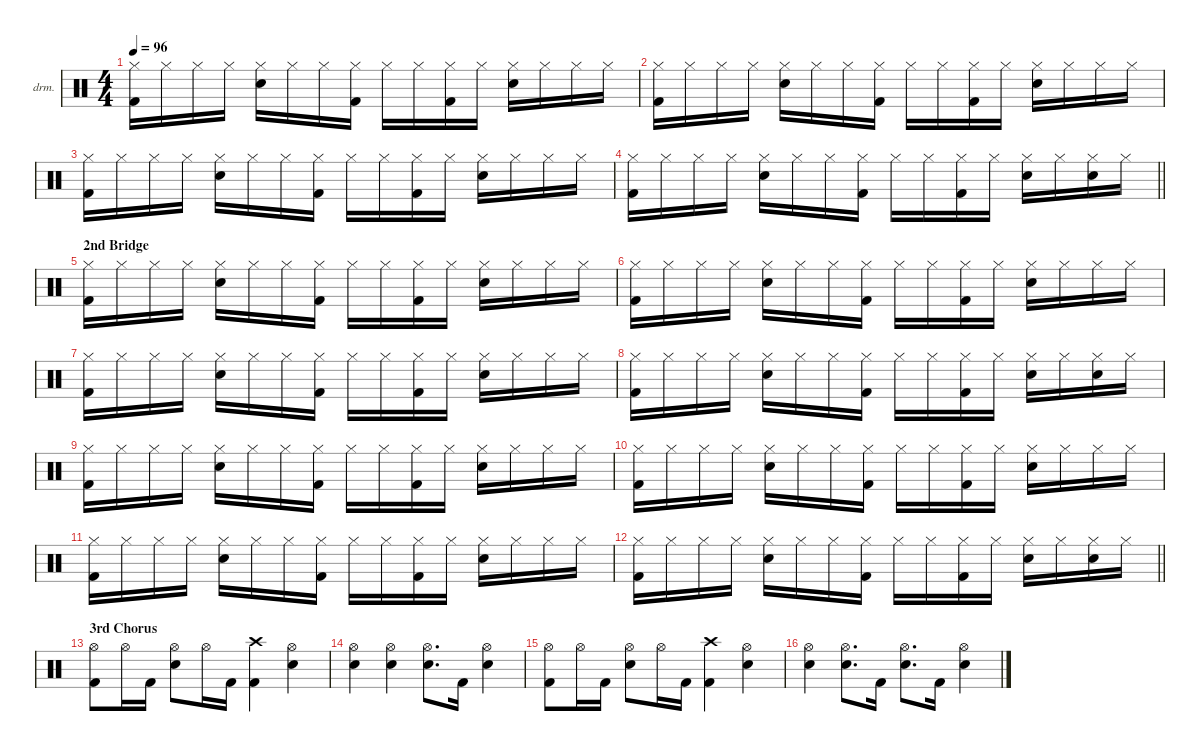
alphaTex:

\defaultSystemsLayout 4
\hideDynamics
\bracketExtendMode nobrackets
\firstSystemTrackNameOrientation horizontal
\otherSystemsTrackNameOrientation horizontal
\track ("Percussion" "drm.") {instrument percussion}
\staff {score}
\articulation defaults
\ts (4 4)
\tempo 96
\clef neutral
\ks c
("Hi-Hat (closed)" "Kick (hit) 2").16{dy pp} "Hi-Hat (closed)".16 "Hi-Hat (closed)".16 "Hi-Hat (closed)".16 ("Hi-Hat (closed)" "Snare (hit) 2").16 "Hi-Hat (closed)".16 "Hi-Hat (closed)".16 ("Hi-Hat (closed)" "Kick (hit) 2").16 "Hi-Hat (closed)".16 "Hi-Hat (closed)".16 ("Hi-Hat (closed)" "Kick (hit) 2").16 "Hi-Hat (closed)".16 ("Hi-Hat (closed)" "Snare (hit) 2").16 "Hi-Hat (closed)".16 "Hi-Hat (closed)".16 "Hi-Hat (closed)".16 |
("Hi-Hat (closed)" "Kick (hit) 2").16 "Hi-Hat (closed)".16 "Hi-Hat (closed)".16 "Hi-Hat (closed)".16 ("Hi-Hat (closed)" "Snare (hit) 2").16 "Hi-Hat (closed)".16 "Hi-Hat (closed)".16 ("Hi-Hat (closed)" "Kick (hit) 2").16 "Hi-Hat (closed)".16 "Hi-Hat (closed)".16 ("Hi-Hat (closed)" "Kick (hit) 2").16 "Hi-Hat (closed)".16 ("Hi-Hat (closed)" "Snare (hit) 2").16 "Hi-Hat (closed)".16 "Hi-Hat (closed)".16 "Hi-Hat (closed)".16 |
("Hi-Hat (closed)" "Kick (hit) 2").16 "Hi-Hat (closed)".16 "Hi-Hat (closed)".16 "Hi-Hat (closed)".16 ("Hi-Hat (closed)" "Snare (hit) 2").16 "Hi-Hat (closed)".16 "Hi-Hat (closed)".16 ("Hi-Hat (closed)" "Kick (hit) 2").16 "Hi-Hat (closed)".16 "Hi-Hat (closed)".16 ("Hi-Hat (closed)" "Kick (hit) 2").16 "Hi-Hat (closed)".16 ("Hi-Hat (closed)" "Snare (hit) 2").16 "Hi-Hat (closed)".16 "Hi-Hat (closed)".16 "Hi-Hat (closed)".16 |
\barLineRight lightlight
("Hi-Hat (closed)" "Kick (hit) 2").16 "Hi-Hat (closed)".16 "Hi-Hat (closed)".16 "Hi-Hat (closed)".16 ("Hi-Hat (closed)" "Snare (hit) 2").16 "Hi-Hat (closed)".16 "Hi-Hat (closed)".16 ("Hi-Hat (closed)" "Kick (hit) 2").16 "Hi-Hat (closed)".16 "Hi-Hat (closed)".16 ("Hi-Hat (closed)" "Kick (hit) 2").16 "Hi-Hat (closed)".16 ("Hi-Hat (closed)" "Snare (hit) 2").16 "Hi-Hat (closed)".16 ("Hi-Hat (closed)" "Snare (hit) 2").16 "Hi-Hat (closed)".16 |
\section ("" "2nd Bridge")
("Hi-Hat (closed)" "Kick (hit) 2").16 "Hi-Hat (closed)".16 "Hi-Hat (closed)".16 "Hi-Hat (closed)".16 ("Hi-Hat (closed)" "Snare (hit) 2").16 "Hi-Hat (closed)".16 "Hi-Hat (closed)".16 ("Hi-Hat (closed)" "Kick (hit) 2").16 "Hi-Hat (closed)".16 "Hi-Hat (closed)".16 ("Hi-Hat (closed)" "Kick (hit) 2").16 "Hi-Hat (closed)".16 ("Hi-Hat (closed)" "Snare (hit) 2").16 "Hi-Hat (closed)".16 "Hi-Hat (closed)".16 "Hi-Hat (closed)".16 |
("Hi-Hat (closed)" "Kick (hit) 2").16 "Hi-Hat (closed)".16 "Hi-Hat (closed)".16 "Hi-Hat (closed)".16 ("Hi-Hat (closed)" "Snare (hit) 2").16 "Hi-Hat (closed)".16 "Hi-Hat (closed)".16 ("Hi-Hat (closed)" "Kick (hit) 2").16 "Hi-Hat (closed)".16 "Hi-Hat (closed)".16 ("Hi-Hat (closed)" "Kick (hit) 2").16 "Hi-Hat (closed)".16 ("Hi-Hat (closed)" "Snare (hit) 2").16 "Hi-Hat (closed)".16 "Hi-Hat (closed)".16 "Hi-Hat (closed)".16 |
("Hi-Hat (closed)" "Kick (hit) 2").16 "Hi-Hat (closed)".16 "Hi-Hat (closed)".16 "Hi-Hat (closed)".16 ("Hi-Hat (closed)" "Snare (hit) 2").16 "Hi-Hat (closed)".16 "Hi-Hat (closed)".16 ("Hi-Hat (closed)" "Kick (hit) 2").16 "Hi-Hat (closed)".16 "Hi-Hat (closed)".16 ("Hi-Hat (closed)" "Kick (hit) 2").16 "Hi-Hat (closed)".16 ("Hi-Hat (closed)" "Snare (hit) 2").16 "Hi-Hat (closed)".16 "Hi-Hat (closed)".16 "Hi-Hat (closed)".16 |
("Hi-Hat (closed)" "Kick (hit) 2").16 "Hi-Hat (closed)".16 "Hi-Hat (closed)".16 "Hi-Hat (closed)".16 ("Hi-Hat (closed)" "Snare (hit) 2").16 "Hi-Hat (closed)".16 "Hi-Hat (closed)".16 ("Hi-Hat (closed)" "Kick (hit) 2").16 "Hi-Hat (closed)".16 "Hi-Hat (closed)".16 ("Hi-Hat (closed)" "Kick (hit) 2").16 "Hi-Hat (closed)".16 ("Hi-Hat (closed)" "Snare (hit) 2").16 "Hi-Hat (closed)".16 ("Hi-Hat (closed)" "Snare (hit) 2").16 "Hi-Hat (closed)".16 |
("Hi-Hat (closed)" "Kick (hit) 2").16 "Hi-Hat (closed)".16 "Hi-Hat (closed)".16 "Hi-Hat (closed)".16 ("Hi-Hat (closed)" "Snare (hit) 2").16 "Hi-Hat (closed)".16 "Hi-Hat (closed)".16 ("Hi-Hat (closed)" "Kick (hit) 2").16 "Hi-Hat (closed)".16 "Hi-Hat (closed)".16 ("Hi-Hat (closed)" "Kick (hit) 2").16 "Hi-Hat (closed)".16 ("Hi-Hat (closed)" "Snare (hit) 2").16 "Hi-Hat (closed)".16 "Hi-Hat (closed)".16 "Hi-Hat (closed)".16 |
("Hi-Hat (closed)" "Kick (hit) 2").16 "Hi-Hat (closed)".16 "Hi-Hat (closed)".16 "Hi-Hat (closed)".16 ("Hi-Hat (closed)" "Snare (hit) 2").16 "Hi-Hat (closed)".16 "Hi-Hat (closed)".16 ("Hi-Hat (closed)" "Kick (hit) 2").16 "Hi-Hat (closed)".16 "Hi-Hat (closed)".16 ("Hi-Hat (closed)" "Kick (hit) 2").16 "Hi-Hat (closed)".16 ("Hi-Hat (closed)" "Snare (hit) 2").16 "Hi-Hat (closed)".16 "Hi-Hat (closed)".16 "Hi-Hat (closed)".16 |
("Hi-Hat (closed)" "Kick (hit) 2").16 "Hi-Hat (closed)".16 "Hi-Hat (closed)".16 "Hi-Hat (closed)".16 ("Hi-Hat (closed)" "Snare (hit) 2").16 "Hi-Hat (closed)".16 "Hi-Hat (closed)".16 ("Hi-Hat (closed)" "Kick (hit) 2").16 "Hi-Hat (closed)".16 "Hi-Hat (closed)".16 ("Hi-Hat (closed)" "Kick (hit) 2").16 "Hi-Hat (closed)".16 ("Hi-Hat (closed)" "Snare (hit) 2").16 "Hi-Hat (closed)".16 "Hi-Hat (closed)".16 "Hi-Hat (closed)".16 |
\barLineRight lightlight
("Hi-Hat (closed)" "Kick (hit) 2").16 "Hi-Hat (closed)".16 "Hi-Hat (closed)".16 "Hi-Hat (closed)".16 ("Hi-Hat (closed)" "Snare (hit) 2").16 "Hi-Hat (closed)".16 "Hi-Hat (closed)".16 ("Hi-Hat (closed)" "Kick (hit) 2").16 "Hi-Hat (closed)".16 "Hi-Hat (closed)".16 ("Hi-Hat (closed)" "Kick (hit) 2").16 "Hi-Hat (closed)".16 ("Hi-Hat (closed)" "Snare (hit) 2").16 "Hi-Hat (closed)".16 ("Hi-Hat (closed)" "Snare (hit) 2").16 "Hi-Hat (closed)".16 |
\section ("" "3rd Chorus")
("Hi-Hat (open)" "Kick (hit) 2").8{dy f} "Hi-Hat (open)".16 "Kick (hit) 2".16 ("Hi-Hat (open)" "Snare (hit) 2").8 "Hi-Hat (open)".16 "Kick (hit) 2".16 ("Crash high (hit)" "Kick (hit) 2").4 ("Hi-Hat (open)" "Snare (hit) 2").4 |
("Hi-Hat (open)" "Snare (hit) 2").4 ("Hi-Hat (open)" "Snare (hit) 2").4 ("Hi-Hat (open)" "Snare (hit) 2").8{d} "Kick (hit) 2".16 ("Hi-Hat (open)" "Snare (hit) 2").4 |
("Hi-Hat (open)" "Kick (hit) 2").8 "Hi-Hat (open)".16 "Kick (hit) 2".16 ("Hi-Hat (open)" "Snare (hit) 2").8 "Hi-Hat (open)".16 "Kick (hit) 2".16 ("Crash high (hit)" "Kick (hit) 2").4 ("Hi-Hat (open)" "Snare (hit) 2").4 |
("Hi-Hat (open)" "Snare (hit) 2").4 ("Hi-Hat (open)" "Snare (hit) 2").8{d} "Kick (hit) 2".16 ("Hi-Hat (open)" "Snare (hit) 2").8{d} "Kick (hit) 2".16 ("Hi-Hat (open)" "Snare (hit) 2").4
